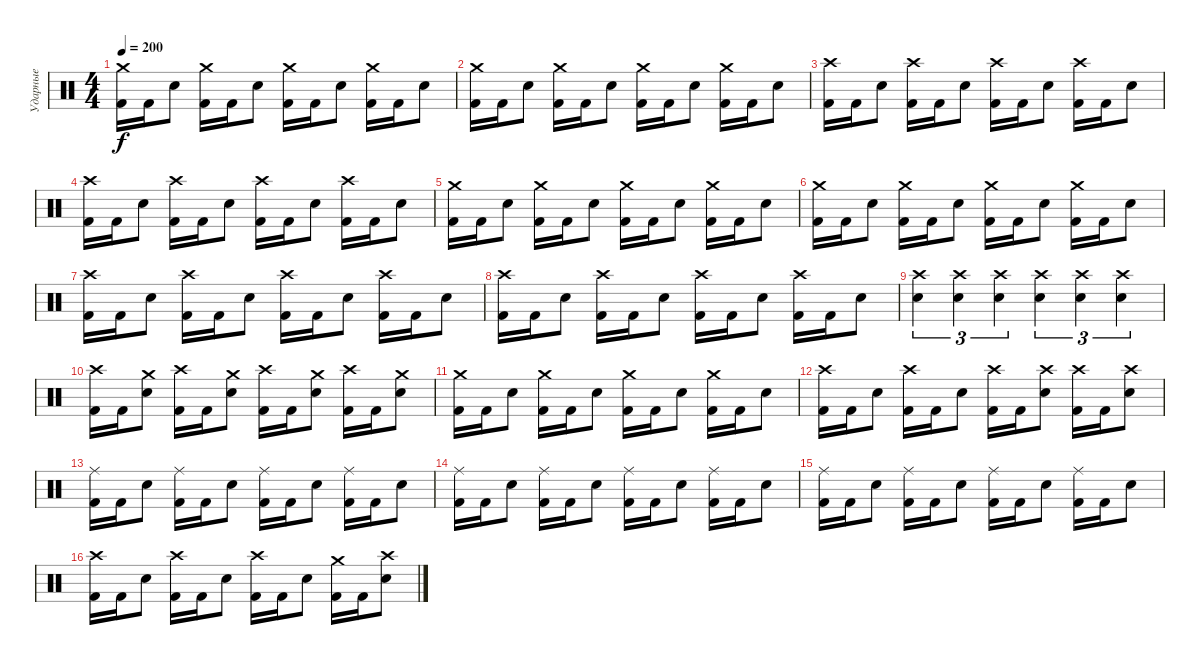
\track ("Ударные" "Ударные") {instrument percussion}
\staff {score}
\articulation defaults
\ts (4 4)
\tempo 200
\clef neutral
\ks c
("Kick (hit) 2" "Crash medium (hit)").16{dy f} "Kick (hit) 2".16 "Electric Snare (hit)".8 ("Kick (hit) 2" "Crash medium (hit)").16 "Kick (hit) 2".16 "Electric Snare (hit)".8 ("Kick (hit) 2" "Crash medium (hit)").16 "Kick (hit) 2".16 "Electric Snare (hit)".8 ("Kick (hit) 2" "Crash medium (hit)").16 "Kick (hit) 2".16 "Electric Snare (hit)".8 |
("Kick (hit) 2" "Crash medium (hit)").16 "Kick (hit) 2".16 "Electric Snare (hit)".8 ("Kick (hit) 2" "Crash medium (hit)").16 "Kick (hit) 2".16 "Electric Snare (hit)".8 ("Kick (hit) 2" "Crash medium (hit)").16 "Kick (hit) 2".16 "Electric Snare (hit)".8 ("Kick (hit) 2" "Crash medium (hit)").16 "Kick (hit) 2".16 "Electric Snare (hit)".8 |
("Kick (hit) 2" "Crash high (hit)").16 "Kick (hit) 2".16 "Electric Snare (hit)".8 ("Kick (hit) 2" "Crash high (hit)").16 "Kick (hit) 2".16 "Electric Snare (hit)".8 ("Kick (hit) 2" "Crash high (hit)").16 "Kick (hit) 2".16 "Electric Snare (hit)".8 ("Kick (hit) 2" "Crash high (hit)").16 "Kick (hit) 2".16 "Electric Snare (hit)".8 |
("Kick (hit) 2" "Crash high (hit)").16 "Kick (hit) 2".16 "Electric Snare (hit)".8 ("Kick (hit) 2" "Crash high (hit)").16 "Kick (hit) 2".16 "Electric Snare (hit)".8 ("Kick (hit) 2" "Crash high (hit)").16 "Kick (hit) 2".16 "Electric Snare (hit)".8 ("Kick (hit) 2" "Crash high (hit)").16 "Kick (hit) 2".16 "Electric Snare (hit)".8 |
("Kick (hit) 2" "Crash medium (hit)").16 "Kick (hit) 2".16 "Electric Snare (hit)".8 ("Kick (hit) 2" "Crash medium (hit)").16 "Kick (hit) 2".16 "Electric Snare (hit)".8 ("Kick (hit) 2" "Crash medium (hit)").16 "Kick (hit) 2".16 "Electric Snare (hit)".8 ("Kick (hit) 2" "Crash medium (hit)").16 "Kick (hit) 2".16 "Electric Snare (hit)".8 |
("Kick (hit) 2" "Crash medium (hit)").16 "Kick (hit) 2".16 "Electric Snare (hit)".8 ("Kick (hit) 2" "Crash medium (hit)").16 "Kick (hit) 2".16 "Electric Snare (hit)".8 ("Kick (hit) 2" "Crash medium (hit)").16 "Kick (hit) 2".16 "Electric Snare (hit)".8 ("Kick (hit) 2" "Crash medium (hit)").16 "Kick (hit) 2".16 "Electric Snare (hit)".8 |
("Kick (hit) 2" "Crash high (hit)").16 "Kick (hit) 2".16 "Electric Snare (hit)".8 ("Kick (hit) 2" "Crash high (hit)").16 "Kick (hit) 2".16 "Electric Snare (hit)".8 ("Kick (hit) 2" "Crash high (hit)").16 "Kick (hit) 2".16 "Electric Snare (hit)".8 ("Kick (hit) 2" "Crash high (hit)").16 "Kick (hit) 2".16 "Electric Snare (hit)".8 |
("Kick (hit) 2" "Crash high (hit)").16 "Kick (hit) 2".16 "Electric Snare (hit)".8 ("Kick (hit) 2" "Crash high (hit)").16 "Kick (hit) 2".16 "Electric Snare (hit)".8 ("Kick (hit) 2" "Crash high (hit)").16 "Kick (hit) 2".16 "Electric Snare (hit)".8 ("Kick (hit) 2" "Crash high (hit)").16 "Kick (hit) 2".16 "Electric Snare (hit)".8 |
("Electric Snare (hit)" "Crash high (hit)").4{tu (3 2)} ("Electric Snare (hit)" "Crash high (hit)").4{tu (3 2)} ("Electric Snare (hit)" "Crash high (hit)").4{tu (3 2)} ("Electric Snare (hit)" "Crash high (hit)").4{tu (3 2)} ("Electric Snare (hit)" "Crash high (hit)").4{tu (3 2)} ("Electric Snare (hit)" "Crash high (hit)").4{tu (3 2)} |
("Kick (hit) 2" "Crash high (hit)").16 "Kick (hit) 2".16 ("Electric Snare (hit)" "Crash medium (hit)").8 ("Kick (hit) 2" "Crash high (hit)").16 "Kick (hit) 2".16 ("Electric Snare (hit)" "Crash medium (hit)").8 ("Kick (hit) 2" "Crash high (hit)").16 "Kick (hit) 2".16 ("Electric Snare (hit)" "Crash medium (hit)").8 ("Kick (hit) 2" "Crash high (hit)").16 "Kick (hit) 2".16 ("Electric Snare (hit)" "Crash medium (hit)").8 |
("Kick (hit) 2" "Crash medium (hit)").16 "Kick (hit) 2".16 "Electric Snare (hit)".8 ("Kick (hit) 2" "Crash medium (hit)").16 "Kick (hit) 2".16 "Electric Snare (hit)".8 ("Kick (hit) 2" "Crash medium (hit)").16 "Kick (hit) 2".16 "Electric Snare (hit)".8 ("Kick (hit) 2" "Crash medium (hit)").16 "Kick (hit) 2".16 "Electric Snare (hit)".8 |
("Kick (hit) 2" "Crash high (hit)").16 "Kick (hit) 2".16 "Electric Snare (hit)".8 ("Kick (hit) 2" "Crash high (hit)").16 "Kick (hit) 2".16 "Electric Snare (hit)".8 ("Kick (hit) 2" "Crash high (hit)").16 "Kick (hit) 2".16 ("Electric Snare (hit)" "Crash high (hit)").8 ("Kick (hit) 2" "Crash high (hit)").16 "Kick (hit) 2".16 ("Electric Snare (hit)" "Crash high (hit)").8 |
("Kick (hit) 2" "Ride (middle)").16 "Kick (hit) 2".16 "Electric Snare (hit)".8 ("Kick (hit) 2" "Ride (middle)").16 "Kick (hit) 2".16 "Electric Snare (hit)".8 ("Kick (hit) 2" "Ride (middle)").16 "Kick (hit) 2".16 "Electric Snare (hit)".8 ("Kick (hit) 2" "Ride (middle)").16 "Kick (hit) 2".16 "Electric Snare (hit)".8 |
("Kick (hit) 2" "Ride (middle)").16 "Kick (hit) 2".16 "Electric Snare (hit)".8 ("Kick (hit) 2" "Ride (middle)").16 "Kick (hit) 2".16 "Electric Snare (hit)".8 ("Kick (hit) 2" "Ride (middle)").16 "Kick (hit) 2".16 "Electric Snare (hit)".8 ("Kick (hit) 2" "Ride (middle)").16 "Kick (hit) 2".16 "Electric Snare (hit)".8 |
("Kick (hit) 2" "Ride (middle)").16 "Kick (hit) 2".16 "Electric Snare (hit)".8 ("Kick (hit) 2" "Ride (middle)").16 "Kick (hit) 2".16 "Electric Snare (hit)".8 ("Kick (hit) 2" "Ride (middle)").16 "Kick (hit) 2".16 "Electric Snare (hit)".8 ("Kick (hit) 2" "Ride (middle)").16 "Kick (hit) 2".16 "Electric Snare (hit)".8 |
("Kick (hit) 2" "Crash high (hit)").16 "Kick (hit) 2".16 "Electric Snare (hit)".8 ("Kick (hit) 2" "Crash high (hit)").16 "Kick (hit) 2".16 "Electric Snare (hit)".8 ("Kick (hit) 2" "Crash high (hit)").16 "Kick (hit) 2".16 "Electric Snare (hit)".8 ("Kick (hit) 2" "Crash medium (hit)").16 "Kick (hit) 2".16 ("Electric Snare (hit)" "Crash high (hit)").8
